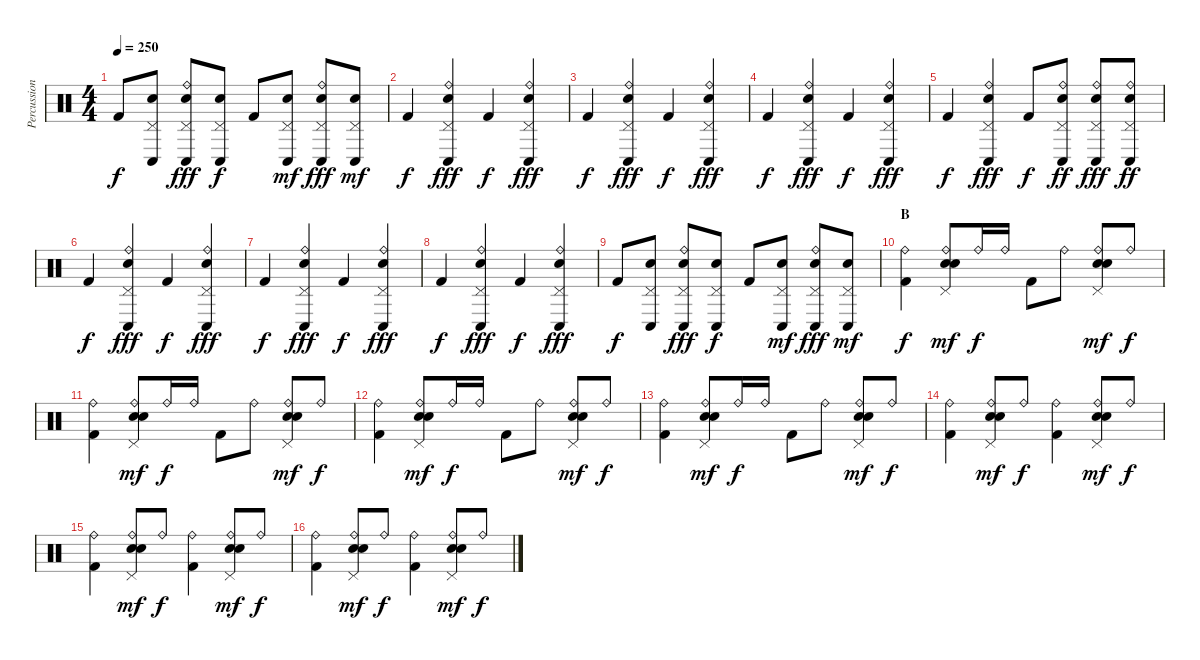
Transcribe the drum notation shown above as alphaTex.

\track ("Percussion" "Percussion") {instrument percussion}
\staff {score}
\articulation defaults
\ts (4 4)
\tempo 250
\clef neutral
\ks c "Kick (hit) 2".8{dy f}
("Pedal Hi-Hat (hit)" "Conga low (hit)" "Electric Snare (hit)").8 ("Ride (bell)" "Pedal Hi-Hat (hit)" "Conga low (hit)" "Electric Snare (hit)").8{dy fff} ("Pedal Hi-Hat (hit)" "Conga low (hit)" "Electric Snare (hit)").8{dy f} "Kick (hit) 2".8 ("Pedal Hi-Hat (hit)" "Conga low (hit)" "Electric Snare (hit)").8{dy mf} ("Ride (bell)" "Pedal Hi-Hat (hit)" "Conga low (hit)" "Electric Snare (hit)").8{dy fff} ("Pedal Hi-Hat (hit)" "Conga low (hit)" "Electric Snare (hit)").8{dy mf} |
"Kick (hit) 2".4{dy f} ("Ride (bell)" "Pedal Hi-Hat (hit)" "Conga low (hit)" "Electric Snare (hit)").4{dy fff} "Kick (hit) 2".4{dy f} ("Ride (bell)" "Pedal Hi-Hat (hit)" "Conga low (hit)" "Electric Snare (hit)").4{dy fff} |
"Kick (hit) 2".4{dy f} ("Ride (bell)" "Pedal Hi-Hat (hit)" "Conga low (hit)" "Electric Snare (hit)").4{dy fff} "Kick (hit) 2".4{dy f} ("Ride (bell)" "Pedal Hi-Hat (hit)" "Conga low (hit)" "Electric Snare (hit)").4{dy fff} |
"Kick (hit) 2".4{dy f} ("Ride (bell)" "Pedal Hi-Hat (hit)" "Conga low (hit)" "Electric Snare (hit)").4{dy fff} "Kick (hit) 2".4{dy f} ("Ride (bell)" "Pedal Hi-Hat (hit)" "Conga low (hit)" "Electric Snare (hit)").4{dy fff} |
"Kick (hit) 2".4{dy f} ("Ride (bell)" "Pedal Hi-Hat (hit)" "Conga low (hit)" "Electric Snare (hit)").4{dy fff} "Kick (hit) 2".8{dy f} ("Ride (bell)" "Pedal Hi-Hat (hit)" "Conga low (hit)" "Electric Snare (hit)").8{dy ff} ("Ride (bell)" "Pedal Hi-Hat (hit)" "Conga low (hit)" "Electric Snare (hit)").8{dy fff} ("Ride (bell)" "Pedal Hi-Hat (hit)" "Conga low (hit)" "Electric Snare (hit)").8{dy ff} |
"Kick (hit) 2".4{dy f} ("Ride (bell)" "Pedal Hi-Hat (hit)" "Conga low (hit)" "Electric Snare (hit)").4{dy fff} "Kick (hit) 2".4{dy f} ("Ride (bell)" "Pedal Hi-Hat (hit)" "Conga low (hit)" "Electric Snare (hit)").4{dy fff} |
"Kick (hit) 2".4{dy f} ("Ride (bell)" "Pedal Hi-Hat (hit)" "Conga low (hit)" "Electric Snare (hit)").4{dy fff} "Kick (hit) 2".4{dy f} ("Ride (bell)" "Pedal Hi-Hat (hit)" "Conga low (hit)" "Electric Snare (hit)").4{dy fff} |
"Kick (hit) 2".4{dy f} ("Ride (bell)" "Pedal Hi-Hat (hit)" "Conga low (hit)" "Electric Snare (hit)").4{dy fff} "Kick (hit) 2".4{dy f} ("Ride (bell)" "Pedal Hi-Hat (hit)" "Conga low (hit)" "Electric Snare (hit)").4{dy fff} |
"Kick (hit) 2".8{dy f} ("Pedal Hi-Hat (hit)" "Conga low (hit)" "Electric Snare (hit)").8 ("Ride (bell)" "Pedal Hi-Hat (hit)" "Conga low (hit)" "Electric Snare (hit)").8{dy fff} ("Pedal Hi-Hat (hit)" "Conga low (hit)" "Electric Snare (hit)").8{dy f} "Kick (hit) 2".8 ("Pedal Hi-Hat (hit)" "Conga low (hit)" "Electric Snare (hit)").8{dy mf} ("Ride (bell)" "Pedal Hi-Hat (hit)" "Conga low (hit)" "Electric Snare (hit)").8{dy fff} ("Pedal Hi-Hat (hit)" "Conga low (hit)" "Electric Snare (hit)").8{dy mf} |
\section ("" "B")
("Ride (bell)" "Kick (hit) 2").4{dy f} ("Ride (bell)" "Pedal Hi-Hat (hit)" "Snare (hit) 2" "Electric Snare (hit)").8{dy mf} "Ride (bell)".16{dy f} "Ride (bell)".16 "Kick (hit) 2".8 "Ride (bell)".8 ("Ride (bell)" "Pedal Hi-Hat (hit)" "Snare (hit) 2" "Electric Snare (hit)").8{dy mf} "Ride (bell)".8{dy f} |
("Ride (bell)" "Kick (hit) 2").4 ("Ride (bell)" "Pedal Hi-Hat (hit)" "Snare (hit) 2" "Electric Snare (hit)").8{dy mf} "Ride (bell)".16{dy f} "Ride (bell)".16 "Kick (hit) 2".8 "Ride (bell)".8 ("Ride (bell)" "Pedal Hi-Hat (hit)" "Snare (hit) 2" "Electric Snare (hit)").8{dy mf} "Ride (bell)".8{dy f} |
("Ride (bell)" "Kick (hit) 2").4 ("Ride (bell)" "Pedal Hi-Hat (hit)" "Snare (hit) 2" "Electric Snare (hit)").8{dy mf} "Ride (bell)".16{dy f} "Ride (bell)".16 "Kick (hit) 2".8 "Ride (bell)".8 ("Ride (bell)" "Pedal Hi-Hat (hit)" "Snare (hit) 2" "Electric Snare (hit)").8{dy mf} "Ride (bell)".8{dy f} |
("Ride (bell)" "Kick (hit) 2").4 ("Ride (bell)" "Pedal Hi-Hat (hit)" "Snare (hit) 2" "Electric Snare (hit)").8{dy mf} "Ride (bell)".16{dy f} "Ride (bell)".16 "Kick (hit) 2".8 "Ride (bell)".8 ("Ride (bell)" "Pedal Hi-Hat (hit)" "Snare (hit) 2" "Electric Snare (hit)").8{dy mf} "Ride (bell)".8{dy f} |
("Ride (bell)" "Kick (hit) 2").4 ("Ride (bell)" "Pedal Hi-Hat (hit)" "Snare (hit) 2" "Electric Snare (hit)").8{dy mf} "Ride (bell)".8{dy f} ("Ride (bell)" "Kick (hit) 2").4 ("Ride (bell)" "Pedal Hi-Hat (hit)" "Snare (hit) 2" "Electric Snare (hit)").8{dy mf} "Ride (bell)".8{dy f} |
("Ride (bell)" "Kick (hit) 2").4 ("Ride (bell)" "Pedal Hi-Hat (hit)" "Snare (hit) 2" "Electric Snare (hit)").8{dy mf} "Ride (bell)".8{dy f} ("Ride (bell)" "Kick (hit) 2").4 ("Ride (bell)" "Pedal Hi-Hat (hit)" "Snare (hit) 2" "Electric Snare (hit)").8{dy mf} "Ride (bell)".8{dy f} |
("Ride (bell)" "Kick (hit) 2").4 ("Ride (bell)" "Pedal Hi-Hat (hit)" "Snare (hit) 2" "Electric Snare (hit)").8{dy mf} "Ride (bell)".8{dy f} ("Ride (bell)" "Kick (hit) 2").4 ("Ride (bell)" "Pedal Hi-Hat (hit)" "Snare (hit) 2" "Electric Snare (hit)").8{dy mf} "Ride (bell)".8{dy f}
